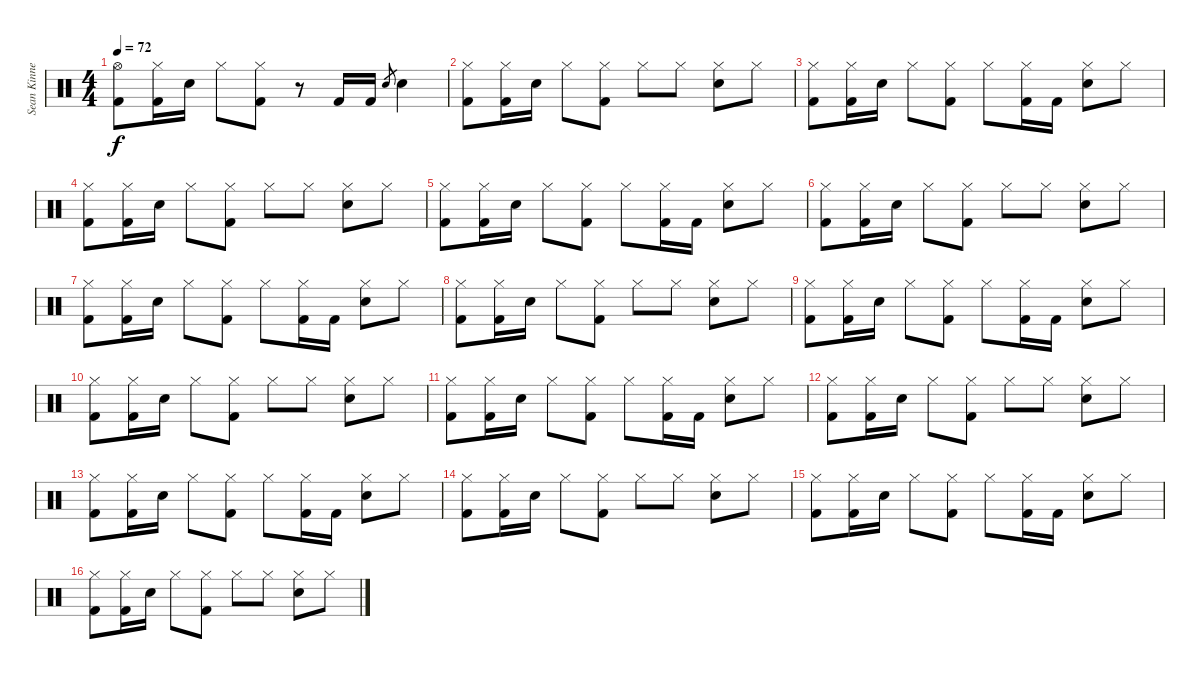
\track ("Sean Kinney - Drums" "Sean Kinne") {instrument percussion}
\staff {score}
\articulation defaults
\ts (4 4)
\tempo 72
\clef neutral
\ks c
("Hi-Hat (open)" "Kick (hit) 2").8{dy f} ("Hi-Hat (closed)" "Kick (hit) 2").16 "Electric Snare (hit)".16 "Hi-Hat (closed)".8 ("Hi-Hat (closed)" "Kick (hit) 2").8 r.8 "Kick (hit) 2".16 "Kick (hit) 2".16 "Electric Snare (hit)"{sl}.8{gr} "Electric Snare (hit)".4 |
("Hi-Hat (closed)" "Kick (hit) 2").8 ("Hi-Hat (closed)" "Kick (hit) 2").16 "Electric Snare (hit)".16 "Hi-Hat (closed)".8 ("Hi-Hat (closed)" "Kick (hit) 2").8 "Hi-Hat (closed)".8 "Hi-Hat (closed)".8 ("Hi-Hat (closed)" "Electric Snare (hit)").8 "Hi-Hat (closed)".8 |
("Hi-Hat (closed)" "Kick (hit) 2").8 ("Hi-Hat (closed)" "Kick (hit) 2").16 "Electric Snare (hit)".16 "Hi-Hat (closed)".8 ("Hi-Hat (closed)" "Kick (hit) 2").8 "Hi-Hat (closed)".8 ("Hi-Hat (closed)" "Kick (hit) 2").16 "Kick (hit) 2".16 ("Hi-Hat (closed)" "Electric Snare (hit)").8 "Hi-Hat (closed)".8 |
("Hi-Hat (closed)" "Kick (hit) 2").8 ("Hi-Hat (closed)" "Kick (hit) 2").16 "Electric Snare (hit)".16 "Hi-Hat (closed)".8 ("Hi-Hat (closed)" "Kick (hit) 2").8 "Hi-Hat (closed)".8 "Hi-Hat (closed)".8 ("Hi-Hat (closed)" "Electric Snare (hit)").8 "Hi-Hat (closed)".8 |
("Hi-Hat (closed)" "Kick (hit) 2").8 ("Hi-Hat (closed)" "Kick (hit) 2").16 "Electric Snare (hit)".16 "Hi-Hat (closed)".8 ("Hi-Hat (closed)" "Kick (hit) 2").8 "Hi-Hat (closed)".8 ("Hi-Hat (closed)" "Kick (hit) 2").16 "Kick (hit) 2".16 ("Hi-Hat (closed)" "Electric Snare (hit)").8 "Hi-Hat (closed)".8 |
("Hi-Hat (closed)" "Kick (hit) 2").8 ("Hi-Hat (closed)" "Kick (hit) 2").16 "Electric Snare (hit)".16 "Hi-Hat (closed)".8 ("Hi-Hat (closed)" "Kick (hit) 2").8 "Hi-Hat (closed)".8 "Hi-Hat (closed)".8 ("Hi-Hat (closed)" "Electric Snare (hit)").8 "Hi-Hat (closed)".8 |
("Hi-Hat (closed)" "Kick (hit) 2").8 ("Hi-Hat (closed)" "Kick (hit) 2").16 "Electric Snare (hit)".16 "Hi-Hat (closed)".8 ("Hi-Hat (closed)" "Kick (hit) 2").8 "Hi-Hat (closed)".8 ("Hi-Hat (closed)" "Kick (hit) 2").16 "Kick (hit) 2".16 ("Hi-Hat (closed)" "Electric Snare (hit)").8 "Hi-Hat (closed)".8 |
("Hi-Hat (closed)" "Kick (hit) 2").8 ("Hi-Hat (closed)" "Kick (hit) 2").16 "Electric Snare (hit)".16 "Hi-Hat (closed)".8 ("Hi-Hat (closed)" "Kick (hit) 2").8 "Hi-Hat (closed)".8 "Hi-Hat (closed)".8 ("Hi-Hat (closed)" "Electric Snare (hit)").8 "Hi-Hat (closed)".8 |
("Hi-Hat (closed)" "Kick (hit) 2").8 ("Hi-Hat (closed)" "Kick (hit) 2").16 "Electric Snare (hit)".16 "Hi-Hat (closed)".8 ("Hi-Hat (closed)" "Kick (hit) 2").8 "Hi-Hat (closed)".8 ("Hi-Hat (closed)" "Kick (hit) 2").16 "Kick (hit) 2".16 ("Hi-Hat (closed)" "Electric Snare (hit)").8 "Hi-Hat (closed)".8 |
("Hi-Hat (closed)" "Kick (hit) 2").8 ("Hi-Hat (closed)" "Kick (hit) 2").16 "Electric Snare (hit)".16 "Hi-Hat (closed)".8 ("Hi-Hat (closed)" "Kick (hit) 2").8 "Hi-Hat (closed)".8 "Hi-Hat (closed)".8 ("Hi-Hat (closed)" "Electric Snare (hit)").8 "Hi-Hat (closed)".8 |
("Hi-Hat (closed)" "Kick (hit) 2").8 ("Hi-Hat (closed)" "Kick (hit) 2").16 "Electric Snare (hit)".16 "Hi-Hat (closed)".8 ("Hi-Hat (closed)" "Kick (hit) 2").8 "Hi-Hat (closed)".8 ("Hi-Hat (closed)" "Kick (hit) 2").16 "Kick (hit) 2".16 ("Hi-Hat (closed)" "Electric Snare (hit)").8 "Hi-Hat (closed)".8 |
("Hi-Hat (closed)" "Kick (hit) 2").8 ("Hi-Hat (closed)" "Kick (hit) 2").16 "Electric Snare (hit)".16 "Hi-Hat (closed)".8 ("Hi-Hat (closed)" "Kick (hit) 2").8 "Hi-Hat (closed)".8 "Hi-Hat (closed)".8 ("Hi-Hat (closed)" "Electric Snare (hit)").8 "Hi-Hat (closed)".8 |
("Hi-Hat (closed)" "Kick (hit) 2").8 ("Hi-Hat (closed)" "Kick (hit) 2").16 "Electric Snare (hit)".16 "Hi-Hat (closed)".8 ("Hi-Hat (closed)" "Kick (hit) 2").8 "Hi-Hat (closed)".8 ("Hi-Hat (closed)" "Kick (hit) 2").16 "Kick (hit) 2".16 ("Hi-Hat (closed)" "Electric Snare (hit)").8 "Hi-Hat (closed)".8 |
("Hi-Hat (closed)" "Kick (hit) 2").8 ("Hi-Hat (closed)" "Kick (hit) 2").16 "Electric Snare (hit)".16 "Hi-Hat (closed)".8 ("Hi-Hat (closed)" "Kick (hit) 2").8 "Hi-Hat (closed)".8 "Hi-Hat (closed)".8 ("Hi-Hat (closed)" "Electric Snare (hit)").8 "Hi-Hat (closed)".8 |
("Hi-Hat (closed)" "Kick (hit) 2").8 ("Hi-Hat (closed)" "Kick (hit) 2").16 "Electric Snare (hit)".16 "Hi-Hat (closed)".8 ("Hi-Hat (closed)" "Kick (hit) 2").8 "Hi-Hat (closed)".8 ("Hi-Hat (closed)" "Kick (hit) 2").16 "Kick (hit) 2".16 ("Hi-Hat (closed)" "Electric Snare (hit)").8 "Hi-Hat (closed)".8 |
("Hi-Hat (closed)" "Kick (hit) 2").8 ("Hi-Hat (closed)" "Kick (hit) 2").16 "Electric Snare (hit)".16 "Hi-Hat (closed)".8 ("Hi-Hat (closed)" "Kick (hit) 2").8 "Hi-Hat (closed)".8 "Hi-Hat (closed)".8 ("Hi-Hat (closed)" "Electric Snare (hit)").8 "Hi-Hat (closed)".8
